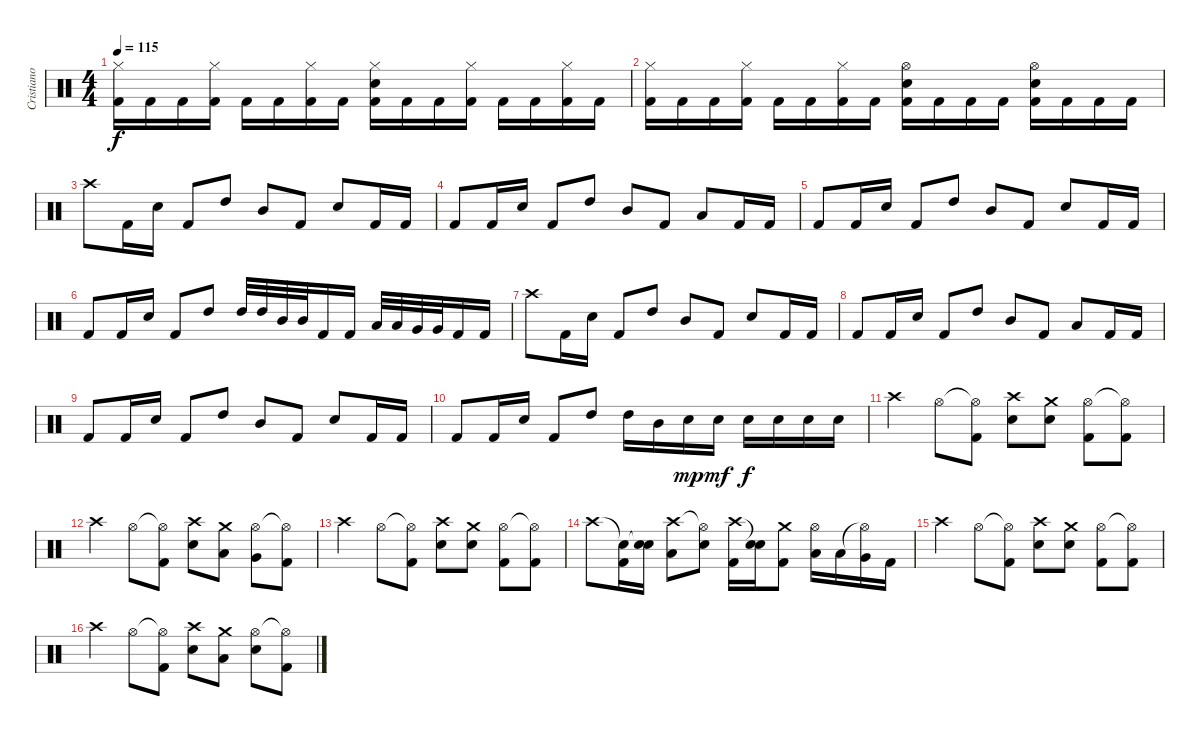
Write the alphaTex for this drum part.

\track ("Cristiano Mozzati" "Cristiano ") {instrument percussion}
\staff {score}
\articulation defaults
\ts (4 4)
\tempo 115
\clef neutral
\ks c
("Hi-Hat (closed)" "Kick (hit) 2").16{dy f} "Kick (hit) 2".16 "Kick (hit) 2".16 ("Hi-Hat (closed)" "Kick (hit) 2").16 "Kick (hit) 2".16 "Kick (hit) 2".16 ("Hi-Hat (closed)" "Kick (hit) 2").16 "Kick (hit) 2".16 ("Hi-Hat (closed)" "Electric Snare (hit)" "Kick (hit) 2").16 "Kick (hit) 2".16 "Kick (hit) 2".16 ("Hi-Hat (closed)" "Kick (hit) 2").16 "Kick (hit) 2".16 "Kick (hit) 2".16 ("Hi-Hat (closed)" "Kick (hit) 2").16 "Kick (hit) 2".16 |
("Hi-Hat (closed)" "Kick (hit) 2").16 "Kick (hit) 2".16 "Kick (hit) 2".16 ("Hi-Hat (closed)" "Kick (hit) 2").16 "Kick (hit) 2".16 "Kick (hit) 2".16 ("Hi-Hat (closed)" "Kick (hit) 2").16 "Kick (hit) 2".16 ("Hi-Hat (open)" "Electric Snare (hit)" "Kick (hit) 2").16 "Kick (hit) 2".16 "Kick (hit) 2".16 "Kick (hit) 2".16 ("Hi-Hat (open)" "Electric Snare (hit)" "Kick (hit) 2").16 "Kick (hit) 2".16 "Kick (hit) 2".16 "Kick (hit) 2".16 |
"Crash high (hit)".8 "Kick (hit) 2".16 "Electric Snare (hit)".16 "Kick (hit) 2".8 "High Tom (hit)".8 "Mid Tom (hit)".8 "Kick (hit) 2".8 "Electric Snare (hit)".8 "Kick (hit) 2".16 "Kick (hit) 2".16 |
"Kick (hit) 2".8 "Kick (hit) 2".16 "Electric Snare (hit)".16 "Kick (hit) 2".8 "High Tom (hit)".8 "Mid Tom (hit)".8 "Kick (hit) 2".8 "Low Tom (hit)".8 "Kick (hit) 2".16 "Kick (hit) 2".16 |
"Kick (hit) 2".8 "Kick (hit) 2".16 "Electric Snare (hit)".16 "Kick (hit) 2".8 "High Tom (hit)".8 "Mid Tom (hit)".8 "Kick (hit) 2".8 "Electric Snare (hit)".8 "Kick (hit) 2".16 "Kick (hit) 2".16 |
"Kick (hit) 2".8 "Kick (hit) 2".16 "Electric Snare (hit)".16 "Kick (hit) 2".8 "High Tom (hit)".8 "High Tom (hit)".32 "High Tom (hit)".32 "Mid Tom (hit)".32 "Mid Tom (hit)".32 "Kick (hit) 2".16 "Kick (hit) 2".16 "Low Tom (hit)".32 "Low Tom (hit)".32 "Very Low Tom (hit)".32 "Very Low Tom (hit)".32 "Kick (hit) 2".16 "Kick (hit) 2".16 |
"Crash high (hit)".8 "Kick (hit) 2".16 "Electric Snare (hit)".16 "Kick (hit) 2".8 "High Tom (hit)".8 "Mid Tom (hit)".8 "Kick (hit) 2".8 "Electric Snare (hit)".8 "Kick (hit) 2".16 "Kick (hit) 2".16 |
"Kick (hit) 2".8 "Kick (hit) 2".16 "Electric Snare (hit)".16 "Kick (hit) 2".8 "High Tom (hit)".8 "Mid Tom (hit)".8 "Kick (hit) 2".8 "Low Tom (hit)".8 "Kick (hit) 2".16 "Kick (hit) 2".16 |
"Kick (hit) 2".8 "Kick (hit) 2".16 "Electric Snare (hit)".16 "Kick (hit) 2".8 "High Tom (hit)".8 "Mid Tom (hit)".8 "Kick (hit) 2".8 "Electric Snare (hit)".8 "Kick (hit) 2".16 "Kick (hit) 2".16 |
"Kick (hit) 2".8 "Kick (hit) 2".16 "Electric Snare (hit)".16 "Kick (hit) 2".8 "High Tom (hit)".8 "High Tom (hit)".16 "Mid Tom (hit)".16 "Electric Snare (hit)".16{dy mp} "Electric Snare (hit)".16{dy mf} "Electric Snare (hit)".16{dy f} "Electric Snare (hit)".16 "Electric Snare (hit)".16 "Electric Snare (hit)".16 |
"Crash high (hit)".4 "Hi-Hat (open)".8 ("Hi-Hat (open)"{t} "Kick (hit) 2").8 ("Crash high (hit)" "Electric Snare (hit)").8 ("Crash medium (hit)" "Electric Snare (hit)").8 ("Hi-Hat (open)" "Kick (hit) 2").8 ("Hi-Hat (open)"{t} "Kick (hit) 2").8 |
"Crash high (hit)".4 "Hi-Hat (open)".8 ("Hi-Hat (open)"{t} "Kick (hit) 2").8 ("Crash high (hit)" "Electric Snare (hit)").8 ("Crash medium (hit)" "Low Tom (hit)").8 ("Hi-Hat (open)" "Very Low Tom (hit)").8 ("Hi-Hat (open)"{t} "Kick (hit) 2").8 |
"Crash high (hit)".4 "Hi-Hat (open)".8 ("Hi-Hat (open)"{t} "Kick (hit) 2").8 ("Crash high (hit)" "Electric Snare (hit)").8 ("Crash medium (hit)" "Electric Snare (hit)").8 ("Hi-Hat (open)" "Kick (hit) 2").8 ("Hi-Hat (open)"{t} "Kick (hit) 2").8 |
"Crash high (hit)".8 ("Snare (hit)"{t} "Kick (hit) 2").16 ("Snare (hit)"{t} "Electric Snare (hit)").16 ("Crash high (hit)" "Low Tom (hit)").8 ("Hi-Hat (open)"{t} "Electric Snare (hit)").8 ("Crash high (hit)" "Kick (hit) 2").16 ("Snare (hit)"{t} "Electric Snare (hit)").16 ("Crash medium (hit)" "Kick (hit) 2").8 ("Hi-Hat (open)" "Low Tom (hit)").16 "Low Tom (hit)".16 ("Hi-Hat (open)"{t} "Very Low Tom (hit)").16 "Kick (hit) 2".16 |
"Crash high (hit)".4 "Hi-Hat (open)".8 ("Hi-Hat (open)"{t} "Kick (hit) 2").8 ("Crash high (hit)" "Electric Snare (hit)").8 ("Crash medium (hit)" "Electric Snare (hit)").8 ("Hi-Hat (open)" "Kick (hit) 2").8 ("Hi-Hat (open)"{t} "Kick (hit) 2").8 |
"Crash high (hit)".4 "Hi-Hat (open)".8 ("Hi-Hat (open)"{t} "Kick (hit) 2").8 ("Crash high (hit)" "Electric Snare (hit)").8 ("Crash medium (hit)" "Low Tom (hit)").8 ("Hi-Hat (open)" "Electric Snare (hit)").8 ("Hi-Hat (open)"{t} "Kick (hit) 2").8
